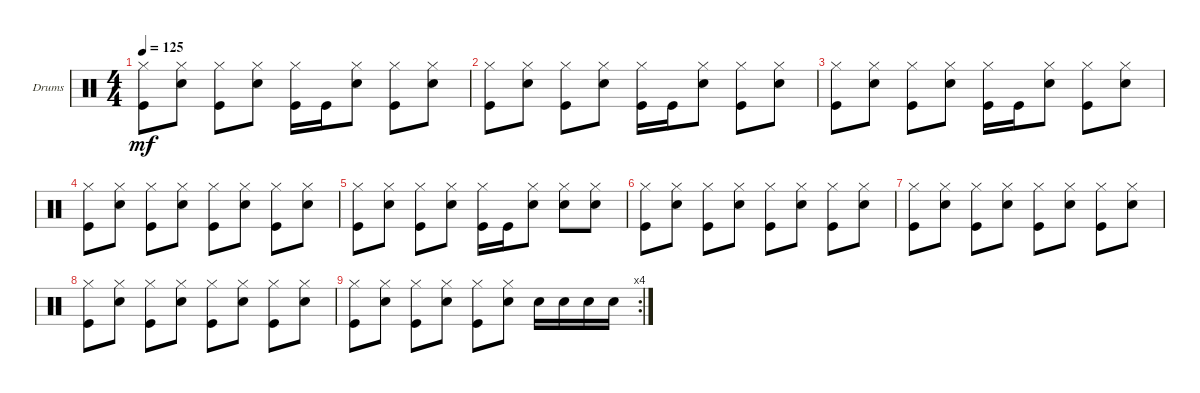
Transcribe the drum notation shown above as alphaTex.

\defaultSystemsLayout 4
\bracketExtendMode groupsimilarinstruments
\firstSystemTrackNameOrientation horizontal
\otherSystemsTrackNameOrientation horizontal
\track ("Drumkit" "Drums") {instrument percussion}
\staff {score}
\articulation defaults
\ts (4 4)
\tempo 125
\clef neutral
\ks c
("Hi-Hat (closed)" "Kick (hit)").8{dy mf} ("Snare (hit) 2" "Hi-Hat (closed)").8 ("Hi-Hat (closed)" "Kick (hit)").8 ("Snare (hit) 2" "Hi-Hat (closed)").8 ("Hi-Hat (closed)" "Kick (hit)").16 "Kick (hit)".16 ("Snare (hit) 2" "Hi-Hat (closed)").8 ("Hi-Hat (closed)" "Kick (hit)").8 ("Snare (hit) 2" "Hi-Hat (closed)").8 |
("Hi-Hat (closed)" "Kick (hit)").8 ("Snare (hit) 2" "Hi-Hat (closed)").8 ("Hi-Hat (closed)" "Kick (hit)").8 ("Snare (hit) 2" "Hi-Hat (closed)").8 ("Hi-Hat (closed)" "Kick (hit)").16 "Kick (hit)".16 ("Snare (hit) 2" "Hi-Hat (closed)").8 ("Hi-Hat (closed)" "Kick (hit)").8 ("Snare (hit) 2" "Hi-Hat (closed)").8 |
("Hi-Hat (closed)" "Kick (hit)").8 ("Snare (hit) 2" "Hi-Hat (closed)").8 ("Hi-Hat (closed)" "Kick (hit)").8 ("Snare (hit) 2" "Hi-Hat (closed)").8 ("Hi-Hat (closed)" "Kick (hit)").16 "Kick (hit)".16 ("Snare (hit) 2" "Hi-Hat (closed)").8 ("Hi-Hat (closed)" "Kick (hit)").8 ("Snare (hit) 2" "Hi-Hat (closed)").8 |
("Hi-Hat (closed)" "Kick (hit)").8 ("Snare (hit) 2" "Hi-Hat (closed)").8 ("Hi-Hat (closed)" "Kick (hit)").8 ("Snare (hit) 2" "Hi-Hat (closed)").8 ("Hi-Hat (closed)" "Kick (hit)").8 ("Snare (hit) 2" "Hi-Hat (closed)").8 ("Hi-Hat (closed)" "Kick (hit)").8 ("Snare (hit) 2" "Hi-Hat (closed)").8 |
("Hi-Hat (closed)" "Kick (hit)").8 ("Snare (hit) 2" "Hi-Hat (closed)").8 ("Hi-Hat (closed)" "Kick (hit)").8 ("Snare (hit) 2" "Hi-Hat (closed)").8 ("Hi-Hat (closed)" "Kick (hit)").16 "Kick (hit)".16 ("Snare (hit) 2" "Hi-Hat (closed)").8 ("Hi-Hat (closed)" "Snare (hit) 2").8 ("Snare (hit) 2" "Hi-Hat (closed)").8 |
("Hi-Hat (closed)" "Kick (hit)").8 ("Snare (hit) 2" "Hi-Hat (closed)").8 ("Hi-Hat (closed)" "Kick (hit)").8 ("Snare (hit) 2" "Hi-Hat (closed)").8 ("Hi-Hat (closed)" "Kick (hit)").8 ("Snare (hit) 2" "Hi-Hat (closed)").8 ("Hi-Hat (closed)" "Kick (hit)").8 ("Snare (hit) 2" "Hi-Hat (closed)").8 |
("Hi-Hat (closed)" "Kick (hit)").8 ("Snare (hit) 2" "Hi-Hat (closed)").8 ("Hi-Hat (closed)" "Kick (hit)").8 ("Snare (hit) 2" "Hi-Hat (closed)").8 ("Hi-Hat (closed)" "Kick (hit)").8 ("Snare (hit) 2" "Hi-Hat (closed)").8 ("Hi-Hat (closed)" "Kick (hit)").8 ("Snare (hit) 2" "Hi-Hat (closed)").8 |
("Hi-Hat (closed)" "Kick (hit)").8 ("Snare (hit) 2" "Hi-Hat (closed)").8 ("Hi-Hat (closed)" "Kick (hit)").8 ("Snare (hit) 2" "Hi-Hat (closed)").8 ("Hi-Hat (closed)" "Kick (hit)").8 ("Snare (hit) 2" "Hi-Hat (closed)").8 ("Hi-Hat (closed)" "Kick (hit)").8 ("Snare (hit) 2" "Hi-Hat (closed)").8 |
\rc 4
("Hi-Hat (closed)" "Kick (hit)").8 ("Snare (hit) 2" "Hi-Hat (closed)").8 ("Hi-Hat (closed)" "Kick (hit)").8 ("Snare (hit) 2" "Hi-Hat (closed)").8 ("Hi-Hat (closed)" "Kick (hit)").8 ("Snare (hit) 2" "Hi-Hat (closed)").8 "Snare (hit) 2".16 "Snare (hit) 2".16 "Snare (hit) 2".16 "Snare (hit) 2".16
